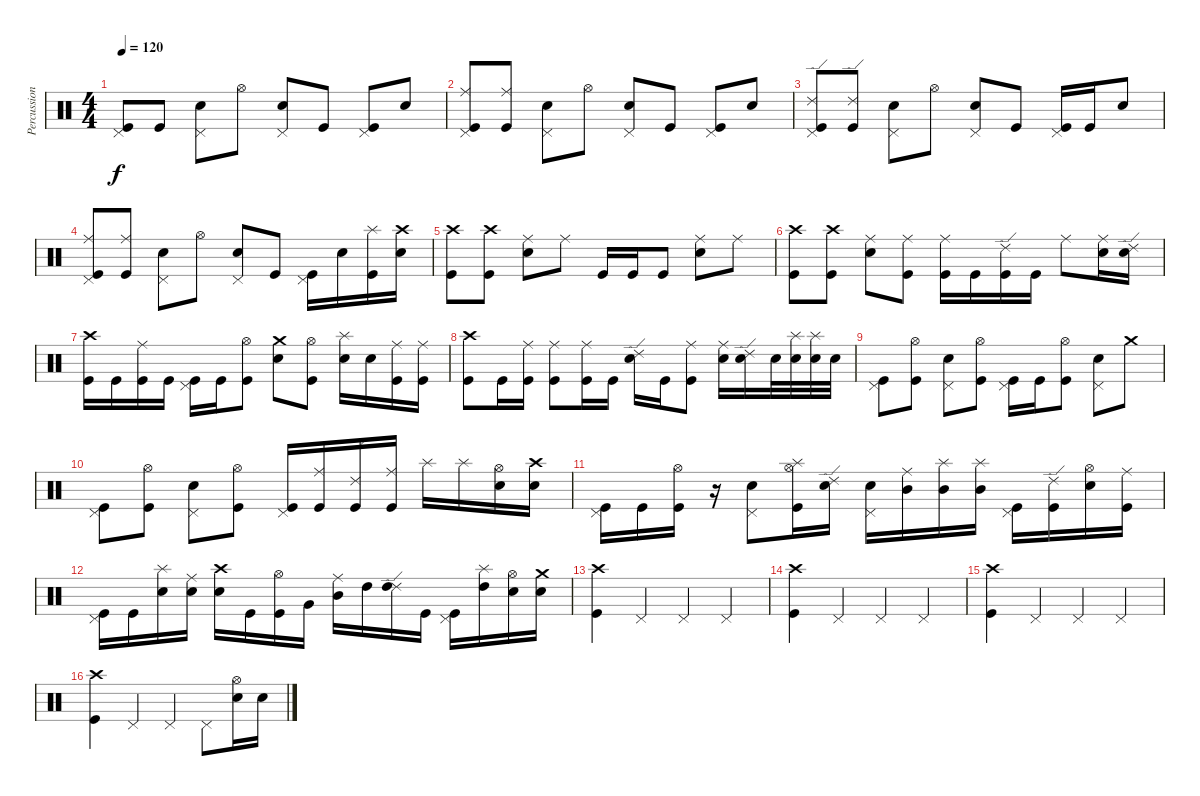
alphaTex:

\track ("Percussions" "Percussion") {instrument percussion}
\staff {score}
\articulation defaults
\ts (4 4)
\tempo 120
\clef neutral
\ks c
("Pedal Hi-Hat (hit)" "Kick (hit)").8{dy f} "Kick (hit)".8 ("Pedal Hi-Hat (hit)" "Snare (hit) 2").8 "Hi-Hat (open)".8 ("Pedal Hi-Hat (hit)" "Snare (hit) 2").8 "Kick (hit)".8 ("Pedal Hi-Hat (hit)" "Kick (hit)").8 "Snare (hit) 2".8 |
("Pedal Hi-Hat (hit)" "Ride (middle)" "Kick (hit)").8 ("Ride (middle)" "Kick (hit)").8 ("Pedal Hi-Hat (hit)" "Snare (hit) 2").8 "Hi-Hat (open)".8 ("Pedal Hi-Hat (hit)" "Snare (hit) 2").8 "Kick (hit)".8 ("Pedal Hi-Hat (hit)" "Kick (hit)").8 "Snare (hit) 2".8 |
("Pedal Hi-Hat (hit)" "Ride (edge) 2" "Kick (hit)").8 ("Ride (edge) 2" "Kick (hit)").8 ("Pedal Hi-Hat (hit)" "Snare (hit) 2").8 "Hi-Hat (open)".8 ("Pedal Hi-Hat (hit)" "Snare (hit) 2").8 "Kick (hit)".8 ("Pedal Hi-Hat (hit)" "Kick (hit)").16 "Kick (hit)".16 "Snare (hit) 2".8 |
("Pedal Hi-Hat (hit)" "Ride (middle)" "Kick (hit)").8 ("Ride (middle)" "Kick (hit)").8 ("Pedal Hi-Hat (hit)" "Snare (hit) 2").8 "Hi-Hat (open)".8 ("Pedal Hi-Hat (hit)" "Snare (hit) 2").8 "Kick (hit)".8 ("Pedal Hi-Hat (hit)" "Kick (hit)").16 "Snare (hit) 2".16 ("Splash (hit)" "Kick (hit)").16 ("Crash high (hit)" "Snare (hit) 2").16 |
("Crash high (hit)" "Kick (hit)").8 ("Crash high (hit)" "Kick (hit)").8 ("Ride (middle)" "Snare (hit) 2").8 "Ride (middle)".8 "Kick (hit)".16 "Kick (hit)".16 "Kick (hit)".8 ("Ride (middle)" "Snare (hit) 2").8 "Ride (middle)".8 |
("Crash high (hit)" "Kick (hit)").8 ("Crash high (hit)" "Kick (hit)").8 ("Ride (middle)" "Snare (hit) 2").8 ("Ride (middle)" "Kick (hit)").8 ("Ride (middle)" "Kick (hit)").16 "Kick (hit)".16 ("Ride (edge) 2" "Kick (hit)").16 "Kick (hit)".16 "Ride (middle)".8 ("Ride (middle)" "Snare (hit) 2").16 ("Ride (edge) 2" "Snare (hit) 2").16 |
("Crash high (hit)" "Kick (hit)").16 "Kick (hit)".16 ("Ride (middle)" "Kick (hit)").16 "Kick (hit)".16 ("Pedal Hi-Hat (hit)" "Kick (hit)").16 "Kick (hit)".16 ("Hi-Hat (open)" "Kick (hit)").8 ("Crash medium (hit)" "Snare (hit) 2").8 ("Hi-Hat (open)" "Kick (hit)").8 ("Splash (hit)" "Snare (hit) 2").16 "Snare (hit) 2".16 ("Ride (middle)" "Kick (hit)").16 ("Ride (middle)" "Kick (hit)").16 |
("Crash high (hit)" "Kick (hit)").8 "Kick (hit)".16 ("Ride (middle)" "Kick (hit)").16 ("Ride (middle)" "Kick (hit)").8 ("Ride (middle)" "Kick (hit)").16 "Kick (hit)".16 ("Ride (edge) 2" "Snare (hit) 2").16 "Kick (hit)".16 ("Ride (middle)" "Kick (hit)").8 ("Ride (middle)" "Snare (hit) 2").16 ("Ride (edge) 2" "Snare (hit) 2").16 "Snare (hit) 2".32 ("Splash (hit)" "Snare (hit) 2").32 ("Splash (hit)" "Snare (hit) 2").32 "Snare (hit) 2".32 |
("Pedal Hi-Hat (hit)" "Kick (hit)").8 ("Hi-Hat (open)" "Kick (hit)").8 ("Pedal Hi-Hat (hit)" "Snare (hit) 2").8 ("Hi-Hat (open)" "Kick (hit)").8 ("Pedal Hi-Hat (hit)" "Kick (hit)").16 "Kick (hit)".16 ("Hi-Hat (open)" "Kick (hit)").8 ("Pedal Hi-Hat (hit)" "Snare (hit) 2").8 "Crash medium (hit)".8 |
("Pedal Hi-Hat (hit)" "Kick (hit)").8 ("Hi-Hat (open)" "Kick (hit)").8 ("Pedal Hi-Hat (hit)" "Snare (hit) 2").8 ("Hi-Hat (open)" "Kick (hit)").8 ("Pedal Hi-Hat (hit)" "Kick (hit)").16 ("Ride (middle)" "Kick (hit)").16 ("Ride (edge) 2" "Kick (hit)").16 ("Ride (middle)" "Kick (hit)").16 "Splash (hit)".16 "Splash (hit)".16 ("Hi-Hat (open)" "Snare (hit) 2").16 ("Crash high (hit)" "Snare (hit) 2").16 |
("Pedal Hi-Hat (hit)" "Kick (hit)").16 "Kick (hit)".16 ("Hi-Hat (open)" "Kick (hit)").16 r.16 ("Pedal Hi-Hat (hit)" "Snare (hit) 2").8 ("Splash (hit)" "Hi-Hat (open)" "Kick (hit)").16 ("Ride (edge) 2" "Snare (hit) 2").16 ("Pedal Hi-Hat (hit)" "Snare (hit) 2").16 ("Ride (middle)" "Mid Tom (hit)").16 ("Splash (hit)" "Mid Tom (hit)").16 ("Splash (hit)" "Mid Tom (hit)").16 ("Pedal Hi-Hat (hit)" "Kick (hit)").16 ("Ride (edge) 2" "Kick (hit)").16 ("Hi-Hat (open)" "Snare (hit) 2").16 ("Ride (middle)" "Kick (hit)").16 |
("Pedal Hi-Hat (hit)" "Kick (hit)").16 "Kick (hit)".16 ("Splash (hit)" "Snare (hit) 2").16 ("Ride (middle)" "Snare (hit) 2").16 ("Crash high (hit)" "Snare (hit) 2").16 "Kick (hit)".16 ("Hi-Hat (open)" "Kick (hit)").16 "Very Low Tom (hit)".16 ("Ride (middle)" "Mid Tom (hit)").16 "High Tom (hit)".16 ("Ride (edge) 2" "High Tom (hit)").16 "Kick (hit)".16 ("Pedal Hi-Hat (hit)" "Kick (hit)").16 ("Splash (hit)" "High Tom (hit)").16 ("Hi-Hat (open)" "Snare (hit) 2").16 ("Crash medium (hit)" "Snare (hit) 2").16 |
("Crash high (hit)" "Kick (hit)").4 "Pedal Hi-Hat (hit)".4 "Pedal Hi-Hat (hit)".4 "Pedal Hi-Hat (hit)".4 |
("Crash high (hit)" "Kick (hit)").4 "Pedal Hi-Hat (hit)".4 "Pedal Hi-Hat (hit)".4 "Pedal Hi-Hat (hit)".4 |
("Crash high (hit)" "Kick (hit)").4 "Pedal Hi-Hat (hit)".4 "Pedal Hi-Hat (hit)".4 "Pedal Hi-Hat (hit)".4 |
("Crash high (hit)" "Kick (hit)").4 "Pedal Hi-Hat (hit)".4 "Pedal Hi-Hat (hit)".4 "Pedal Hi-Hat (hit)".8 ("Hi-Hat (open)" "Snare (hit) 2").16 "Snare (hit) 2".16
